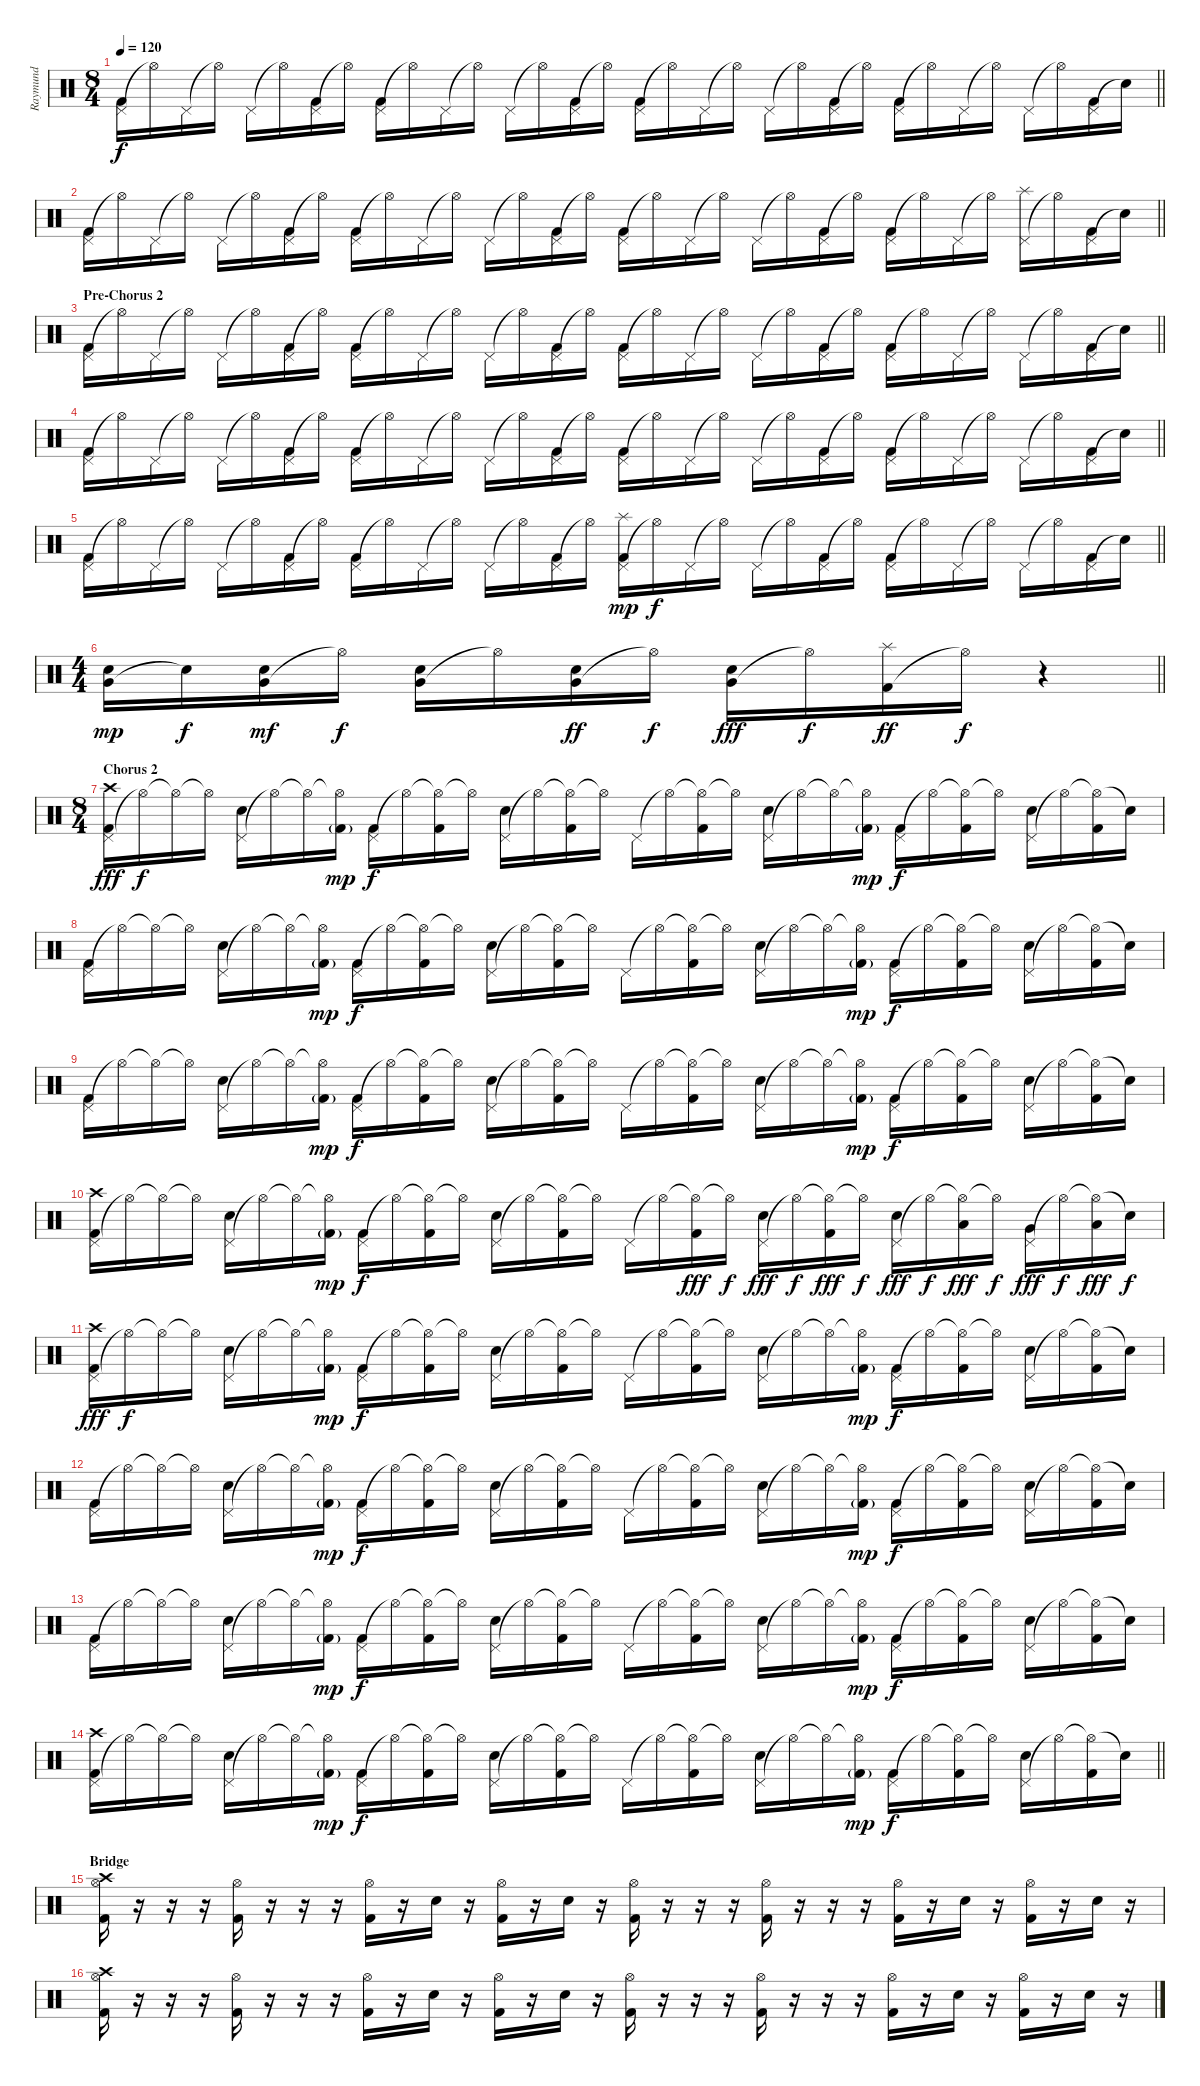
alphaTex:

\track ("Raymund" "Raymund") {instrument percussion}
\staff {score}
\articulation defaults
\ts (8 4)
\tempo 120
\clef neutral
\barLineRight lightlight
\ks c
("Pedal Hi-Hat (hit)" "Kick (hit) 2").16{dy f} "Hi-Hat (open)"{t}.16 "Pedal Hi-Hat (hit)".16 "Hi-Hat (open)"{t}.16 "Pedal Hi-Hat (hit)".16 "Hi-Hat (open)"{t}.16 ("Pedal Hi-Hat (hit)" "Kick (hit) 2").16 "Hi-Hat (open)"{t}.16 ("Pedal Hi-Hat (hit)" "Kick (hit) 2").16 "Hi-Hat (open)"{t}.16 "Pedal Hi-Hat (hit)".16 "Hi-Hat (open)"{t}.16 "Pedal Hi-Hat (hit)".16 "Hi-Hat (open)"{t}.16 ("Pedal Hi-Hat (hit)" "Kick (hit) 2").16 "Hi-Hat (open)"{t}.16 ("Pedal Hi-Hat (hit)" "Kick (hit) 2").16 "Hi-Hat (open)"{t}.16 "Pedal Hi-Hat (hit)".16 "Hi-Hat (open)"{t}.16 "Pedal Hi-Hat (hit)".16 "Hi-Hat (open)"{t}.16 ("Pedal Hi-Hat (hit)" "Kick (hit) 2").16 "Hi-Hat (open)"{t}.16 ("Pedal Hi-Hat (hit)" "Kick (hit) 2").16 "Hi-Hat (open)"{t}.16 "Pedal Hi-Hat (hit)".16 "Hi-Hat (open)"{t}.16 "Pedal Hi-Hat (hit)".16 "Hi-Hat (open)"{t}.16 ("Pedal Hi-Hat (hit)" "Kick (hit) 2").16 "Snare (hit)"{t}.16 |
\barLineRight lightlight
("Pedal Hi-Hat (hit)" "Kick (hit) 2").16 "Hi-Hat (open)"{t}.16 "Pedal Hi-Hat (hit)".16 "Hi-Hat (open)"{t}.16 "Pedal Hi-Hat (hit)".16 "Hi-Hat (open)"{t}.16 ("Pedal Hi-Hat (hit)" "Kick (hit) 2").16 "Hi-Hat (open)"{t}.16 ("Pedal Hi-Hat (hit)" "Kick (hit) 2").16 "Hi-Hat (open)"{t}.16 "Pedal Hi-Hat (hit)".16 "Hi-Hat (open)"{t}.16 "Pedal Hi-Hat (hit)".16 "Hi-Hat (open)"{t}.16 ("Pedal Hi-Hat (hit)" "Kick (hit) 2").16 "Hi-Hat (open)"{t}.16 ("Pedal Hi-Hat (hit)" "Kick (hit) 2").16 "Hi-Hat (open)"{t}.16 "Pedal Hi-Hat (hit)".16 "Hi-Hat (open)"{t}.16 "Pedal Hi-Hat (hit)".16 "Hi-Hat (open)"{t}.16 ("Pedal Hi-Hat (hit)" "Kick (hit) 2").16 "Hi-Hat (open)"{t}.16 ("Pedal Hi-Hat (hit)" "Kick (hit) 2").16 "Hi-Hat (open)"{t}.16 "Pedal Hi-Hat (hit)".16 "Hi-Hat (open)"{t}.16 ("Pedal Hi-Hat (hit)" "Splash (hit)").16 "Hi-Hat (open)"{t}.16 ("Pedal Hi-Hat (hit)" "Kick (hit) 2").16 "Snare (hit)"{t}.16 |
\section ("" "Pre-Chorus 2")
\barLineRight lightlight
("Pedal Hi-Hat (hit)" "Kick (hit) 2").16 "Hi-Hat (open)"{t}.16 "Pedal Hi-Hat (hit)".16 "Hi-Hat (open)"{t}.16 "Pedal Hi-Hat (hit)".16 "Hi-Hat (open)"{t}.16 ("Pedal Hi-Hat (hit)" "Kick (hit) 2").16 "Hi-Hat (open)"{t}.16 ("Pedal Hi-Hat (hit)" "Kick (hit) 2").16 "Hi-Hat (open)"{t}.16 "Pedal Hi-Hat (hit)".16 "Hi-Hat (open)"{t}.16 "Pedal Hi-Hat (hit)".16 "Hi-Hat (open)"{t}.16 ("Pedal Hi-Hat (hit)" "Kick (hit) 2").16 "Hi-Hat (open)"{t}.16 ("Pedal Hi-Hat (hit)" "Kick (hit) 2").16 "Hi-Hat (open)"{t}.16 "Pedal Hi-Hat (hit)".16 "Hi-Hat (open)"{t}.16 "Pedal Hi-Hat (hit)".16 "Hi-Hat (open)"{t}.16 ("Pedal Hi-Hat (hit)" "Kick (hit) 2").16 "Hi-Hat (open)"{t}.16 ("Pedal Hi-Hat (hit)" "Kick (hit) 2").16 "Hi-Hat (open)"{t}.16 "Pedal Hi-Hat (hit)".16 "Hi-Hat (open)"{t}.16 "Pedal Hi-Hat (hit)".16 "Hi-Hat (open)"{t}.16 ("Pedal Hi-Hat (hit)" "Kick (hit) 2").16 "Snare (hit)"{t}.16 |
\barLineRight lightlight
("Pedal Hi-Hat (hit)" "Kick (hit) 2").16 "Hi-Hat (open)"{t}.16 "Pedal Hi-Hat (hit)".16 "Hi-Hat (open)"{t}.16 "Pedal Hi-Hat (hit)".16 "Hi-Hat (open)"{t}.16 ("Pedal Hi-Hat (hit)" "Kick (hit) 2").16 "Hi-Hat (open)"{t}.16 ("Pedal Hi-Hat (hit)" "Kick (hit) 2").16 "Hi-Hat (open)"{t}.16 "Pedal Hi-Hat (hit)".16 "Hi-Hat (open)"{t}.16 "Pedal Hi-Hat (hit)".16 "Hi-Hat (open)"{t}.16 ("Pedal Hi-Hat (hit)" "Kick (hit) 2").16 "Hi-Hat (open)"{t}.16 ("Pedal Hi-Hat (hit)" "Kick (hit) 2").16 "Hi-Hat (open)"{t}.16 "Pedal Hi-Hat (hit)".16 "Hi-Hat (open)"{t}.16 "Pedal Hi-Hat (hit)".16 "Hi-Hat (open)"{t}.16 ("Pedal Hi-Hat (hit)" "Kick (hit) 2").16 "Hi-Hat (open)"{t}.16 ("Pedal Hi-Hat (hit)" "Kick (hit) 2").16 "Hi-Hat (open)"{t}.16 "Pedal Hi-Hat (hit)".16 "Hi-Hat (open)"{t}.16 "Pedal Hi-Hat (hit)".16 "Hi-Hat (open)"{t}.16 ("Pedal Hi-Hat (hit)" "Kick (hit) 2").16 "Snare (hit)"{t}.16 |
\barLineRight lightlight
("Pedal Hi-Hat (hit)" "Kick (hit) 2").16 "Hi-Hat (open)"{t}.16 "Pedal Hi-Hat (hit)".16 "Hi-Hat (open)"{t}.16 "Pedal Hi-Hat (hit)".16 "Hi-Hat (open)"{t}.16 ("Pedal Hi-Hat (hit)" "Kick (hit) 2").16 "Hi-Hat (open)"{t}.16 ("Pedal Hi-Hat (hit)" "Kick (hit) 2").16 "Hi-Hat (open)"{t}.16 "Pedal Hi-Hat (hit)".16 "Hi-Hat (open)"{t}.16 "Pedal Hi-Hat (hit)".16 "Hi-Hat (open)"{t}.16 ("Pedal Hi-Hat (hit)" "Kick (hit) 2").16 "Hi-Hat (open)"{t}.16 ("Pedal Hi-Hat (hit)" "Kick (hit) 2" "Splash (hit)").16{dy mp} "Hi-Hat (open)"{t}.16{dy f} "Pedal Hi-Hat (hit)".16 "Hi-Hat (open)"{t}.16 "Pedal Hi-Hat (hit)".16 "Hi-Hat (open)"{t}.16 ("Pedal Hi-Hat (hit)" "Kick (hit) 2").16 "Hi-Hat (open)"{t}.16 ("Pedal Hi-Hat (hit)" "Kick (hit) 2").16 "Hi-Hat (open)"{t}.16 "Pedal Hi-Hat (hit)".16 "Hi-Hat (open)"{t}.16 "Pedal Hi-Hat (hit)".16 "Hi-Hat (open)"{t}.16 ("Pedal Hi-Hat (hit)" "Kick (hit) 2").16 "Snare (hit)"{t}.16 |
\ts (4 4)
\barLineRight lightlight
("Very Low Tom (hit)" "Snare (hit) 2").16{dy mp} "Snare (hit)"{t}.16{dy f} ("Very Low Tom (hit)" "Snare (hit) 2").16{dy mf} "Hi-Hat (open)"{t}.16{dy f} ("Very Low Tom (hit)" "Snare (hit) 2").16 "Hi-Hat (open)"{t}.16 ("Very Low Tom (hit)" "Snare (hit) 2").16{dy ff} "Hi-Hat (open)"{t}.16{dy f} ("Very Low Tom (hit)" "Snare (hit) 2").16{dy fff} "Hi-Hat (open)"{t}.16{dy f} ("Kick (hit) 2" "Splash (hit)").16{dy ff} "Hi-Hat (open)"{t}.16{dy f} r.4 |
\ts (8 4)
\section ("" "Chorus 2")
("Pedal Hi-Hat (hit)" "Kick (hit) 2" "Crash high (hit)").16{dy fff} "Hi-Hat (open)"{t}.16{dy f} "Hi-Hat (open)"{t}.16 "Hi-Hat (open)"{t}.16 ("Pedal Hi-Hat (hit)" "Snare (hit) 2").16 "Hi-Hat (open)"{t}.16 "Hi-Hat (open)"{t}.16 ("Hi-Hat (open)"{t} "Kick (hit) 2"{g}).16{dy mp} ("Pedal Hi-Hat (hit)" "Kick (hit) 2").16{dy f} "Hi-Hat (open)"{t}.16 ("Hi-Hat (open)"{t} "Kick (hit) 2").16 "Hi-Hat (open)"{t}.16 ("Pedal Hi-Hat (hit)" "Snare (hit) 2").16 "Hi-Hat (open)"{t}.16 ("Hi-Hat (open)"{t} "Kick (hit) 2").16 "Hi-Hat (open)"{t}.16 "Pedal Hi-Hat (hit)".16 "Hi-Hat (open)"{t}.16 ("Hi-Hat (open)"{t} "Kick (hit) 2").16 "Hi-Hat (open)"{t}.16 ("Pedal Hi-Hat (hit)" "Snare (hit) 2").16 "Hi-Hat (open)"{t}.16 "Hi-Hat (open)"{t}.16 ("Hi-Hat (open)"{t} "Kick (hit) 2"{g}).16{dy mp} ("Pedal Hi-Hat (hit)" "Kick (hit) 2").16{dy f} "Hi-Hat (open)"{t}.16 ("Hi-Hat (open)"{t} "Kick (hit) 2").16 "Hi-Hat (open)"{t}.16 ("Pedal Hi-Hat (hit)" "Snare (hit) 2").16 "Hi-Hat (open)"{t}.16 ("Hi-Hat (open)"{t} "Kick (hit) 2").16 "Snare (hit)"{t}.16 |
("Pedal Hi-Hat (hit)" "Kick (hit) 2").16 "Hi-Hat (open)"{t}.16 "Hi-Hat (open)"{t}.16 "Hi-Hat (open)"{t}.16 ("Pedal Hi-Hat (hit)" "Snare (hit) 2").16 "Hi-Hat (open)"{t}.16 "Hi-Hat (open)"{t}.16 ("Hi-Hat (open)"{t} "Kick (hit) 2"{g}).16{dy mp} ("Pedal Hi-Hat (hit)" "Kick (hit) 2").16{dy f} "Hi-Hat (open)"{t}.16 ("Hi-Hat (open)"{t} "Kick (hit) 2").16 "Hi-Hat (open)"{t}.16 ("Pedal Hi-Hat (hit)" "Snare (hit) 2").16 "Hi-Hat (open)"{t}.16 ("Hi-Hat (open)"{t} "Kick (hit) 2").16 "Hi-Hat (open)"{t}.16 "Pedal Hi-Hat (hit)".16 "Hi-Hat (open)"{t}.16 ("Hi-Hat (open)"{t} "Kick (hit) 2").16 "Hi-Hat (open)"{t}.16 ("Pedal Hi-Hat (hit)" "Snare (hit) 2").16 "Hi-Hat (open)"{t}.16 "Hi-Hat (open)"{t}.16 ("Hi-Hat (open)"{t} "Kick (hit) 2"{g}).16{dy mp} ("Pedal Hi-Hat (hit)" "Kick (hit) 2").16{dy f} "Hi-Hat (open)"{t}.16 ("Hi-Hat (open)"{t} "Kick (hit) 2").16 "Hi-Hat (open)"{t}.16 ("Pedal Hi-Hat (hit)" "Snare (hit) 2").16 "Hi-Hat (open)"{t}.16 ("Hi-Hat (open)"{t} "Kick (hit) 2").16 "Snare (hit)"{t}.16 |
("Pedal Hi-Hat (hit)" "Kick (hit) 2").16 "Hi-Hat (open)"{t}.16 "Hi-Hat (open)"{t}.16 "Hi-Hat (open)"{t}.16 ("Pedal Hi-Hat (hit)" "Snare (hit) 2").16 "Hi-Hat (open)"{t}.16 "Hi-Hat (open)"{t}.16 ("Hi-Hat (open)"{t} "Kick (hit) 2"{g}).16{dy mp} ("Pedal Hi-Hat (hit)" "Kick (hit) 2").16{dy f} "Hi-Hat (open)"{t}.16 ("Hi-Hat (open)"{t} "Kick (hit) 2").16 "Hi-Hat (open)"{t}.16 ("Pedal Hi-Hat (hit)" "Snare (hit) 2").16 "Hi-Hat (open)"{t}.16 ("Hi-Hat (open)"{t} "Kick (hit) 2").16 "Hi-Hat (open)"{t}.16 "Pedal Hi-Hat (hit)".16 "Hi-Hat (open)"{t}.16 ("Hi-Hat (open)"{t} "Kick (hit) 2").16 "Hi-Hat (open)"{t}.16 ("Pedal Hi-Hat (hit)" "Snare (hit) 2").16 "Hi-Hat (open)"{t}.16 "Hi-Hat (open)"{t}.16 ("Hi-Hat (open)"{t} "Kick (hit) 2"{g}).16{dy mp} ("Pedal Hi-Hat (hit)" "Kick (hit) 2").16{dy f} "Hi-Hat (open)"{t}.16 ("Hi-Hat (open)"{t} "Kick (hit) 2").16 "Hi-Hat (open)"{t}.16 ("Pedal Hi-Hat (hit)" "Snare (hit) 2").16 "Hi-Hat (open)"{t}.16 ("Hi-Hat (open)"{t} "Kick (hit) 2").16 "Snare (hit)"{t}.16 |
("Pedal Hi-Hat (hit)" "Kick (hit) 2" "Crash high (hit)").16 "Hi-Hat (open)"{t}.16 "Hi-Hat (open)"{t}.16 "Hi-Hat (open)"{t}.16 ("Pedal Hi-Hat (hit)" "Snare (hit) 2").16 "Hi-Hat (open)"{t}.16 "Hi-Hat (open)"{t}.16 ("Hi-Hat (open)"{t} "Kick (hit) 2"{g}).16{dy mp} ("Pedal Hi-Hat (hit)" "Kick (hit) 2").16{dy f} "Hi-Hat (open)"{t}.16 ("Hi-Hat (open)"{t} "Kick (hit) 2").16 "Hi-Hat (open)"{t}.16 ("Pedal Hi-Hat (hit)" "Snare (hit) 2").16 "Hi-Hat (open)"{t}.16 ("Hi-Hat (open)"{t} "Kick (hit) 2").16 "Hi-Hat (open)"{t}.16 "Pedal Hi-Hat (hit)".16 "Hi-Hat (open)"{t}.16 ("Hi-Hat (open)"{t} "Kick (hit) 2").16{dy fff} "Hi-Hat (open)"{t}.16{dy f} ("Pedal Hi-Hat (hit)" "Snare (hit) 2").16{dy fff} "Hi-Hat (open)"{t}.16{dy f} ("Hi-Hat (open)"{t} "Kick (hit) 2").16{dy fff} "Hi-Hat (open)"{t}.16{dy f} ("Pedal Hi-Hat (hit)" "Snare (hit) 2").16{dy fff} "Hi-Hat (open)"{t}.16{dy f} ("Hi-Hat (open)"{t} "Low Tom (hit)").16{dy fff} "Hi-Hat (open)"{t}.16{dy f} ("Pedal Hi-Hat (hit)" "Very Low Tom (hit)").16{dy fff} "Hi-Hat (open)"{t}.16{dy f} ("Hi-Hat (open)"{t} "Low Tom (hit)").16{dy fff} "Snare (hit)"{t}.16{dy f} |
("Pedal Hi-Hat (hit)" "Kick (hit) 2" "Crash high (hit)").16{dy fff} "Hi-Hat (open)"{t}.16{dy f} "Hi-Hat (open)"{t}.16 "Hi-Hat (open)"{t}.16 ("Pedal Hi-Hat (hit)" "Snare (hit) 2").16 "Hi-Hat (open)"{t}.16 "Hi-Hat (open)"{t}.16 ("Hi-Hat (open)"{t} "Kick (hit) 2"{g}).16{dy mp} ("Pedal Hi-Hat (hit)" "Kick (hit) 2").16{dy f} "Hi-Hat (open)"{t}.16 ("Hi-Hat (open)"{t} "Kick (hit) 2").16 "Hi-Hat (open)"{t}.16 ("Pedal Hi-Hat (hit)" "Snare (hit) 2").16 "Hi-Hat (open)"{t}.16 ("Hi-Hat (open)"{t} "Kick (hit) 2").16 "Hi-Hat (open)"{t}.16 "Pedal Hi-Hat (hit)".16 "Hi-Hat (open)"{t}.16 ("Hi-Hat (open)"{t} "Kick (hit) 2").16 "Hi-Hat (open)"{t}.16 ("Pedal Hi-Hat (hit)" "Snare (hit) 2").16 "Hi-Hat (open)"{t}.16 "Hi-Hat (open)"{t}.16 ("Hi-Hat (open)"{t} "Kick (hit) 2"{g}).16{dy mp} ("Pedal Hi-Hat (hit)" "Kick (hit) 2").16{dy f} "Hi-Hat (open)"{t}.16 ("Hi-Hat (open)"{t} "Kick (hit) 2").16 "Hi-Hat (open)"{t}.16 ("Pedal Hi-Hat (hit)" "Snare (hit) 2").16 "Hi-Hat (open)"{t}.16 ("Hi-Hat (open)"{t} "Kick (hit) 2").16 "Snare (hit)"{t}.16 |
("Pedal Hi-Hat (hit)" "Kick (hit) 2").16 "Hi-Hat (open)"{t}.16 "Hi-Hat (open)"{t}.16 "Hi-Hat (open)"{t}.16 ("Pedal Hi-Hat (hit)" "Snare (hit) 2").16 "Hi-Hat (open)"{t}.16 "Hi-Hat (open)"{t}.16 ("Hi-Hat (open)"{t} "Kick (hit) 2"{g}).16{dy mp} ("Pedal Hi-Hat (hit)" "Kick (hit) 2").16{dy f} "Hi-Hat (open)"{t}.16 ("Hi-Hat (open)"{t} "Kick (hit) 2").16 "Hi-Hat (open)"{t}.16 ("Pedal Hi-Hat (hit)" "Snare (hit) 2").16 "Hi-Hat (open)"{t}.16 ("Hi-Hat (open)"{t} "Kick (hit) 2").16 "Hi-Hat (open)"{t}.16 "Pedal Hi-Hat (hit)".16 "Hi-Hat (open)"{t}.16 ("Hi-Hat (open)"{t} "Kick (hit) 2").16 "Hi-Hat (open)"{t}.16 ("Pedal Hi-Hat (hit)" "Snare (hit) 2").16 "Hi-Hat (open)"{t}.16 "Hi-Hat (open)"{t}.16 ("Hi-Hat (open)"{t} "Kick (hit) 2"{g}).16{dy mp} ("Pedal Hi-Hat (hit)" "Kick (hit) 2").16{dy f} "Hi-Hat (open)"{t}.16 ("Hi-Hat (open)"{t} "Kick (hit) 2").16 "Hi-Hat (open)"{t}.16 ("Pedal Hi-Hat (hit)" "Snare (hit) 2").16 "Hi-Hat (open)"{t}.16 ("Hi-Hat (open)"{t} "Kick (hit) 2").16 "Snare (hit)"{t}.16 |
("Pedal Hi-Hat (hit)" "Kick (hit) 2").16 "Hi-Hat (open)"{t}.16 "Hi-Hat (open)"{t}.16 "Hi-Hat (open)"{t}.16 ("Pedal Hi-Hat (hit)" "Snare (hit) 2").16 "Hi-Hat (open)"{t}.16 "Hi-Hat (open)"{t}.16 ("Hi-Hat (open)"{t} "Kick (hit) 2"{g}).16{dy mp} ("Pedal Hi-Hat (hit)" "Kick (hit) 2").16{dy f} "Hi-Hat (open)"{t}.16 ("Hi-Hat (open)"{t} "Kick (hit) 2").16 "Hi-Hat (open)"{t}.16 ("Pedal Hi-Hat (hit)" "Snare (hit) 2").16 "Hi-Hat (open)"{t}.16 ("Hi-Hat (open)"{t} "Kick (hit) 2").16 "Hi-Hat (open)"{t}.16 "Pedal Hi-Hat (hit)".16 "Hi-Hat (open)"{t}.16 ("Hi-Hat (open)"{t} "Kick (hit) 2").16 "Hi-Hat (open)"{t}.16 ("Pedal Hi-Hat (hit)" "Snare (hit) 2").16 "Hi-Hat (open)"{t}.16 "Hi-Hat (open)"{t}.16 ("Hi-Hat (open)"{t} "Kick (hit) 2"{g}).16{dy mp} ("Pedal Hi-Hat (hit)" "Kick (hit) 2").16{dy f} "Hi-Hat (open)"{t}.16 ("Hi-Hat (open)"{t} "Kick (hit) 2").16 "Hi-Hat (open)"{t}.16 ("Pedal Hi-Hat (hit)" "Snare (hit) 2").16 "Hi-Hat (open)"{t}.16 ("Hi-Hat (open)"{t} "Kick (hit) 2").16 "Snare (hit)"{t}.16 |
\barLineRight lightlight
("Pedal Hi-Hat (hit)" "Kick (hit) 2" "Crash high (hit)").16 "Hi-Hat (open)"{t}.16 "Hi-Hat (open)"{t}.16 "Hi-Hat (open)"{t}.16 ("Pedal Hi-Hat (hit)" "Snare (hit) 2").16 "Hi-Hat (open)"{t}.16 "Hi-Hat (open)"{t}.16 ("Hi-Hat (open)"{t} "Kick (hit) 2"{g}).16{dy mp} ("Pedal Hi-Hat (hit)" "Kick (hit) 2").16{dy f} "Hi-Hat (open)"{t}.16 ("Hi-Hat (open)"{t} "Kick (hit) 2").16 "Hi-Hat (open)"{t}.16 ("Pedal Hi-Hat (hit)" "Snare (hit) 2").16 "Hi-Hat (open)"{t}.16 ("Hi-Hat (open)"{t} "Kick (hit) 2").16 "Hi-Hat (open)"{t}.16 "Pedal Hi-Hat (hit)".16 "Hi-Hat (open)"{t}.16 ("Hi-Hat (open)"{t} "Kick (hit) 2").16 "Hi-Hat (open)"{t}.16 ("Pedal Hi-Hat (hit)" "Snare (hit) 2").16 "Hi-Hat (open)"{t}.16 "Hi-Hat (open)"{t}.16 ("Hi-Hat (open)"{t} "Kick (hit) 2"{g}).16{dy mp} ("Pedal Hi-Hat (hit)" "Kick (hit) 2").16{dy f} "Hi-Hat (open)"{t}.16 ("Hi-Hat (open)"{t} "Kick (hit) 2").16 "Hi-Hat (open)"{t}.16 ("Pedal Hi-Hat (hit)" "Snare (hit) 2").16 "Hi-Hat (open)"{t}.16 ("Hi-Hat (open)"{t} "Kick (hit) 2").16 "Snare (hit)"{t}.16 |
\section ("" "Bridge")
("Hi-Hat (open)" "Kick (hit) 2" "Crash high (hit)").16 r.16 r.16 r.16 ("Hi-Hat (open)" "Kick (hit) 2").16 r.16 r.16 r.16 ("Hi-Hat (open)" "Kick (hit) 2").16 r.16 "Snare (hit) 2".16 r.16 ("Hi-Hat (open)" "Kick (hit) 2").16 r.16 "Snare (hit) 2".16 r.16 ("Hi-Hat (open)" "Kick (hit) 2").16 r.16 r.16 r.16 ("Hi-Hat (open)" "Kick (hit) 2").16 r.16 r.16 r.16 ("Hi-Hat (open)" "Kick (hit) 2").16 r.16 "Snare (hit) 2".16 r.16 ("Hi-Hat (open)" "Kick (hit) 2").16 r.16 "Snare (hit) 2".16 r.16 |
("Hi-Hat (open)" "Kick (hit) 2" "Crash high (hit)").16 r.16 r.16 r.16 ("Hi-Hat (open)" "Kick (hit) 2").16 r.16 r.16 r.16 ("Hi-Hat (open)" "Kick (hit) 2").16 r.16 "Snare (hit) 2".16 r.16 ("Hi-Hat (open)" "Kick (hit) 2").16 r.16 "Snare (hit) 2".16 r.16 ("Hi-Hat (open)" "Kick (hit) 2").16 r.16 r.16 r.16 ("Hi-Hat (open)" "Kick (hit) 2").16 r.16 r.16 r.16 ("Hi-Hat (open)" "Kick (hit) 2").16 r.16 "Snare (hit) 2".16 r.16 ("Hi-Hat (open)" "Kick (hit) 2").16 r.16 "Snare (hit) 2".16 r.16
